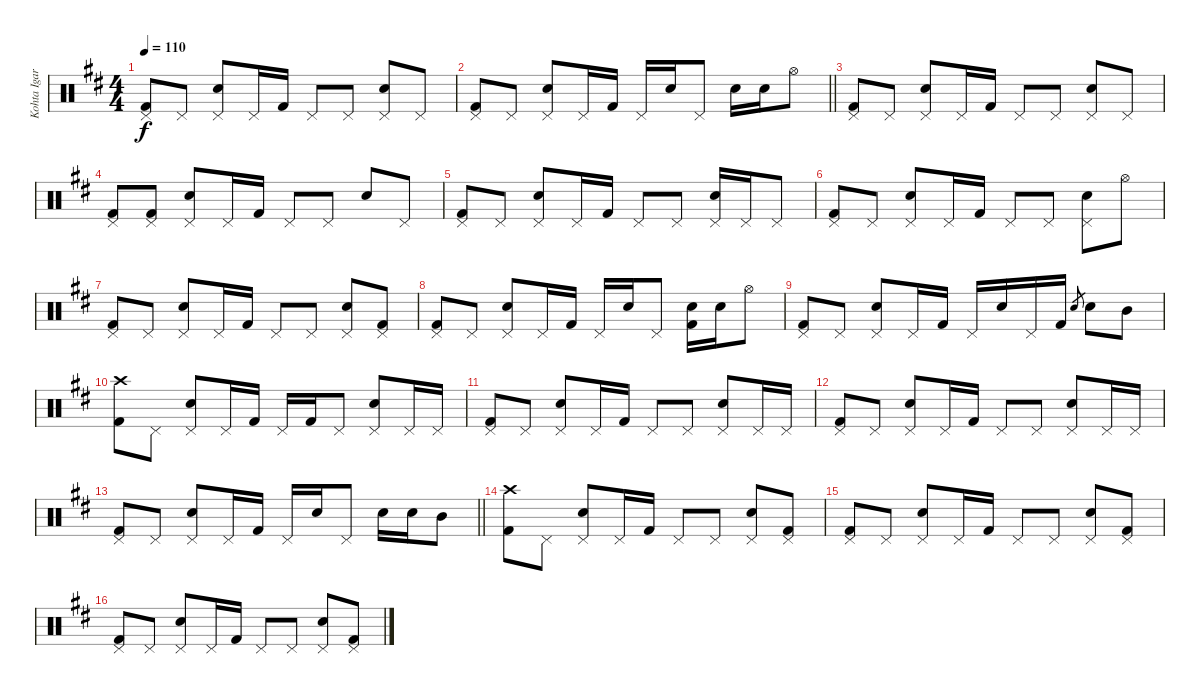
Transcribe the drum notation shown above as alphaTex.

\track ("Kohta Igarashi" "Kohta Igar") {instrument percussion}
\staff {score}
\articulation defaults
\ts (4 4)
\tempo 110
\clef neutral
\ks d
("Pedal Hi-Hat (hit)" "Kick (hit) 2").8{dy f} "Pedal Hi-Hat (hit)".8 ("Pedal Hi-Hat (hit)" "Electric Snare (hit)").8 "Pedal Hi-Hat (hit)".16 "Kick (hit) 2".16 "Pedal Hi-Hat (hit)".8 "Pedal Hi-Hat (hit)".8 ("Pedal Hi-Hat (hit)" "Electric Snare (hit)").8 "Pedal Hi-Hat (hit)".8 |
\barLineRight lightlight
("Pedal Hi-Hat (hit)" "Kick (hit) 2").8 "Pedal Hi-Hat (hit)".8 ("Pedal Hi-Hat (hit)" "Electric Snare (hit)").8 "Pedal Hi-Hat (hit)".16 "Kick (hit) 2".16 "Pedal Hi-Hat (hit)".16 "Electric Snare (hit)".16 "Pedal Hi-Hat (hit)".8 "Electric Snare (hit)".16 "Electric Snare (hit)".16 "Hi-Hat (open)".8 |
("Pedal Hi-Hat (hit)" "Kick (hit) 2").8 "Pedal Hi-Hat (hit)".8 ("Pedal Hi-Hat (hit)" "Electric Snare (hit)").8 "Pedal Hi-Hat (hit)".16 "Kick (hit) 2".16 "Pedal Hi-Hat (hit)".8 "Pedal Hi-Hat (hit)".8 ("Pedal Hi-Hat (hit)" "Electric Snare (hit)").8 "Pedal Hi-Hat (hit)".8 |
("Pedal Hi-Hat (hit)" "Kick (hit) 2").8 ("Pedal Hi-Hat (hit)" "Kick (hit) 2").8 ("Pedal Hi-Hat (hit)" "Electric Snare (hit)").8 "Pedal Hi-Hat (hit)".16 "Kick (hit) 2".16 "Pedal Hi-Hat (hit)".8 "Pedal Hi-Hat (hit)".8 "Electric Snare (hit)".8 "Pedal Hi-Hat (hit)".8 |
("Pedal Hi-Hat (hit)" "Kick (hit) 2").8 "Pedal Hi-Hat (hit)".8 ("Pedal Hi-Hat (hit)" "Electric Snare (hit)").8 "Pedal Hi-Hat (hit)".16 "Kick (hit) 2".16 "Pedal Hi-Hat (hit)".8 "Pedal Hi-Hat (hit)".8 ("Pedal Hi-Hat (hit)" "Electric Snare (hit)").16 "Pedal Hi-Hat (hit)".16 "Pedal Hi-Hat (hit)".8 |
("Pedal Hi-Hat (hit)" "Kick (hit) 2").8 "Pedal Hi-Hat (hit)".8 ("Pedal Hi-Hat (hit)" "Electric Snare (hit)").8 "Pedal Hi-Hat (hit)".16 "Kick (hit) 2".16 "Pedal Hi-Hat (hit)".8 "Pedal Hi-Hat (hit)".8 ("Pedal Hi-Hat (hit)" "Electric Snare (hit)").8 "Hi-Hat (open)".8 |
("Pedal Hi-Hat (hit)" "Kick (hit) 2").8 "Pedal Hi-Hat (hit)".8 ("Pedal Hi-Hat (hit)" "Electric Snare (hit)").8 "Pedal Hi-Hat (hit)".16 "Kick (hit) 2".16 "Pedal Hi-Hat (hit)".8 "Pedal Hi-Hat (hit)".8 ("Pedal Hi-Hat (hit)" "Electric Snare (hit)").8 ("Pedal Hi-Hat (hit)" "Kick (hit) 2").8 |
("Pedal Hi-Hat (hit)" "Kick (hit) 2").8 "Pedal Hi-Hat (hit)".8 ("Pedal Hi-Hat (hit)" "Electric Snare (hit)").8 "Pedal Hi-Hat (hit)".16 "Kick (hit) 2".16 "Pedal Hi-Hat (hit)".16 "Electric Snare (hit)".16 "Pedal Hi-Hat (hit)".8 ("Electric Snare (hit)" "Kick (hit) 2").16 "Electric Snare (hit)".16 "Hi-Hat (open)".8 |
("Pedal Hi-Hat (hit)" "Kick (hit) 2").8 "Pedal Hi-Hat (hit)".8 ("Pedal Hi-Hat (hit)" "Electric Snare (hit)").8 "Pedal Hi-Hat (hit)".16 "Kick (hit) 2".16 "Pedal Hi-Hat (hit)".16 "Electric Snare (hit)".16 "Pedal Hi-Hat (hit)".16 "Kick (hit) 2".16 "Electric Snare (hit)".8{gr} "Electric Snare (hit)".8 "Mid Tom (hit)".8 |
("Crash high (hit)" "Kick (hit) 2").8 "Pedal Hi-Hat (hit)".8 ("Pedal Hi-Hat (hit)" "Electric Snare (hit)").8 "Pedal Hi-Hat (hit)".16 "Kick (hit) 2".16 "Pedal Hi-Hat (hit)".16 "Kick (hit) 2".16 "Pedal Hi-Hat (hit)".8 ("Pedal Hi-Hat (hit)" "Electric Snare (hit)").8 "Pedal Hi-Hat (hit)".16 "Pedal Hi-Hat (hit)".16 |
("Pedal Hi-Hat (hit)" "Kick (hit) 2").8 "Pedal Hi-Hat (hit)".8 ("Pedal Hi-Hat (hit)" "Electric Snare (hit)").8 "Pedal Hi-Hat (hit)".16 "Kick (hit) 2".16 "Pedal Hi-Hat (hit)".8 "Pedal Hi-Hat (hit)".8 ("Pedal Hi-Hat (hit)" "Electric Snare (hit)").8 "Pedal Hi-Hat (hit)".16 "Pedal Hi-Hat (hit)".16 |
("Pedal Hi-Hat (hit)" "Kick (hit) 2").8 "Pedal Hi-Hat (hit)".8 ("Pedal Hi-Hat (hit)" "Electric Snare (hit)").8 "Pedal Hi-Hat (hit)".16 "Kick (hit) 2".16 "Pedal Hi-Hat (hit)".8 "Pedal Hi-Hat (hit)".8 ("Pedal Hi-Hat (hit)" "Electric Snare (hit)").8 "Pedal Hi-Hat (hit)".16 "Pedal Hi-Hat (hit)".16 |
\barLineRight lightlight
("Pedal Hi-Hat (hit)" "Kick (hit) 2").8 "Pedal Hi-Hat (hit)".8 ("Pedal Hi-Hat (hit)" "Electric Snare (hit)").8 "Pedal Hi-Hat (hit)".16 "Kick (hit) 2".16 "Pedal Hi-Hat (hit)".16 "Electric Snare (hit)".16 "Pedal Hi-Hat (hit)".8 "Electric Snare (hit)".16 "Electric Snare (hit)".16 "Mid Tom (hit)".8 |
("Crash high (hit)" "Kick (hit) 2").8 "Pedal Hi-Hat (hit)".8 ("Pedal Hi-Hat (hit)" "Electric Snare (hit)").8 "Pedal Hi-Hat (hit)".16 "Kick (hit) 2".16 "Pedal Hi-Hat (hit)".8 "Pedal Hi-Hat (hit)".8 ("Pedal Hi-Hat (hit)" "Electric Snare (hit)").8 ("Pedal Hi-Hat (hit)" "Kick (hit) 2").8 |
("Pedal Hi-Hat (hit)" "Kick (hit) 2").8 "Pedal Hi-Hat (hit)".8 ("Pedal Hi-Hat (hit)" "Electric Snare (hit)").8 "Pedal Hi-Hat (hit)".16 "Kick (hit) 2".16 "Pedal Hi-Hat (hit)".8 "Pedal Hi-Hat (hit)".8 ("Pedal Hi-Hat (hit)" "Electric Snare (hit)").8 ("Pedal Hi-Hat (hit)" "Kick (hit) 2").8 |
("Pedal Hi-Hat (hit)" "Kick (hit) 2").8 "Pedal Hi-Hat (hit)".8 ("Pedal Hi-Hat (hit)" "Electric Snare (hit)").8 "Pedal Hi-Hat (hit)".16 "Kick (hit) 2".16 "Pedal Hi-Hat (hit)".8 "Pedal Hi-Hat (hit)".8 ("Pedal Hi-Hat (hit)" "Electric Snare (hit)").8 ("Pedal Hi-Hat (hit)" "Kick (hit) 2").8
